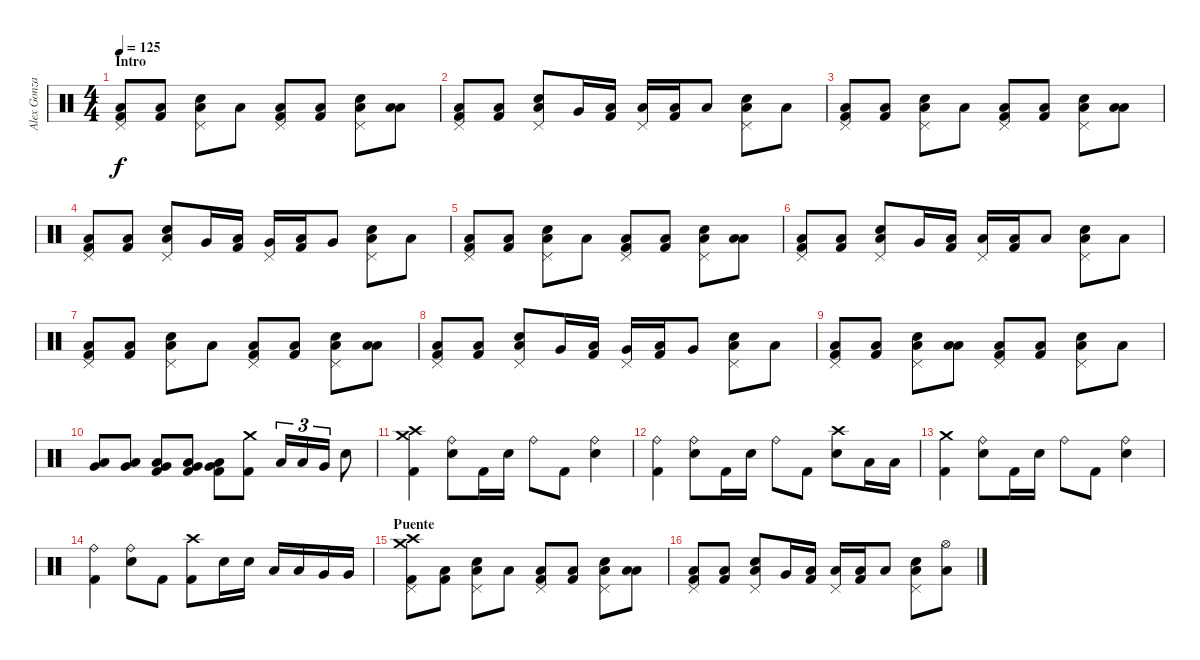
\track ("Alex Gonzales" "Alex Gonza") {instrument percussion}
\staff {score}
\articulation defaults
\ts (4 4)
\section ("" "Intro")
\tempo 125
\clef neutral
\ks c
("Low Floor Tom (hit)" "Kick (hit) 2" "Pedal Hi-Hat (hit)").8{dy f} ("Low Floor Tom (hit)" "Kick (hit) 2").8 ("Electric Snare (hit)" "Low Floor Tom (hit)" "Pedal Hi-Hat (hit)").8 "Low Floor Tom (hit)".8 ("Low Floor Tom (hit)" "Kick (hit) 2" "Pedal Hi-Hat (hit)").8 ("Low Floor Tom (hit)" "Kick (hit) 2").8 ("Electric Snare (hit)" "Low Floor Tom (hit)" "Pedal Hi-Hat (hit)").8 ("Low Tom (hit)" "Low Floor Tom (hit)").8 |
("Low Floor Tom (hit)" "Kick (hit) 2" "Pedal Hi-Hat (hit)").8 ("Low Floor Tom (hit)" "Kick (hit) 2").8 ("Electric Snare (hit)" "Low Floor Tom (hit)" "Pedal Hi-Hat (hit)").8 "Very Low Tom (hit)".16 ("Low Floor Tom (hit)" "Kick (hit) 2").16 ("Low Floor Tom (hit)" "Pedal Hi-Hat (hit)").16 ("Low Floor Tom (hit)" "Kick (hit) 2").16 "Low Floor Tom (hit)".8 ("Electric Snare (hit)" "Low Floor Tom (hit)" "Pedal Hi-Hat (hit)").8 "Low Floor Tom (hit)".8 |
("Low Floor Tom (hit)" "Kick (hit) 2" "Pedal Hi-Hat (hit)").8 ("Low Floor Tom (hit)" "Kick (hit) 2").8 ("Electric Snare (hit)" "Low Floor Tom (hit)" "Pedal Hi-Hat (hit)").8 "Low Floor Tom (hit)".8 ("Low Floor Tom (hit)" "Kick (hit) 2" "Pedal Hi-Hat (hit)").8 ("Low Floor Tom (hit)" "Kick (hit) 2").8 ("Electric Snare (hit)" "Low Floor Tom (hit)" "Pedal Hi-Hat (hit)").8 ("Low Tom (hit)" "Low Floor Tom (hit)").8 |
("Low Floor Tom (hit)" "Kick (hit) 2" "Pedal Hi-Hat (hit)").8 ("Low Floor Tom (hit)" "Kick (hit) 2").8 ("Electric Snare (hit)" "Low Floor Tom (hit)" "Pedal Hi-Hat (hit)").8 "Very Low Tom (hit)".16 ("Low Floor Tom (hit)" "Kick (hit) 2").16 ("Very Low Tom (hit)" "Pedal Hi-Hat (hit)").16 ("Low Floor Tom (hit)" "Kick (hit) 2").16 "Very Low Tom (hit)".8 ("Electric Snare (hit)" "Low Floor Tom (hit)" "Pedal Hi-Hat (hit)").8 "Low Floor Tom (hit)".8 |
("Low Floor Tom (hit)" "Kick (hit) 2" "Pedal Hi-Hat (hit)").8 ("Low Floor Tom (hit)" "Kick (hit) 2").8 ("Electric Snare (hit)" "Low Floor Tom (hit)" "Pedal Hi-Hat (hit)").8 "Low Floor Tom (hit)".8 ("Low Floor Tom (hit)" "Kick (hit) 2" "Pedal Hi-Hat (hit)").8 ("Low Floor Tom (hit)" "Kick (hit) 2").8 ("Electric Snare (hit)" "Low Floor Tom (hit)" "Pedal Hi-Hat (hit)").8 ("Low Tom (hit)" "Low Floor Tom (hit)").8 |
("Low Floor Tom (hit)" "Kick (hit) 2" "Pedal Hi-Hat (hit)").8 ("Low Floor Tom (hit)" "Kick (hit) 2").8 ("Electric Snare (hit)" "Low Floor Tom (hit)" "Pedal Hi-Hat (hit)").8 "Very Low Tom (hit)".16 ("Low Floor Tom (hit)" "Kick (hit) 2").16 ("Low Floor Tom (hit)" "Pedal Hi-Hat (hit)").16 ("Low Floor Tom (hit)" "Kick (hit) 2").16 "Low Floor Tom (hit)".8 ("Electric Snare (hit)" "Low Floor Tom (hit)" "Pedal Hi-Hat (hit)").8 "Low Floor Tom (hit)".8 |
("Low Floor Tom (hit)" "Kick (hit) 2" "Pedal Hi-Hat (hit)").8 ("Low Floor Tom (hit)" "Kick (hit) 2").8 ("Electric Snare (hit)" "Low Floor Tom (hit)" "Pedal Hi-Hat (hit)").8 "Low Floor Tom (hit)".8 ("Low Floor Tom (hit)" "Kick (hit) 2" "Pedal Hi-Hat (hit)").8 ("Low Floor Tom (hit)" "Kick (hit) 2").8 ("Electric Snare (hit)" "Low Floor Tom (hit)" "Pedal Hi-Hat (hit)").8 ("Low Tom (hit)" "Low Floor Tom (hit)").8 |
("Low Floor Tom (hit)" "Kick (hit) 2" "Pedal Hi-Hat (hit)").8 ("Low Floor Tom (hit)" "Kick (hit) 2").8 ("Electric Snare (hit)" "Low Floor Tom (hit)" "Pedal Hi-Hat (hit)").8 "Very Low Tom (hit)".16 ("Low Floor Tom (hit)" "Kick (hit) 2").16 ("Very Low Tom (hit)" "Pedal Hi-Hat (hit)").16 ("Low Floor Tom (hit)" "Kick (hit) 2").16 "Very Low Tom (hit)".8 ("Electric Snare (hit)" "Low Floor Tom (hit)" "Pedal Hi-Hat (hit)").8 "Low Floor Tom (hit)".8 |
("Low Floor Tom (hit)" "Kick (hit) 2" "Pedal Hi-Hat (hit)").8 ("Low Floor Tom (hit)" "Kick (hit) 2").8 ("Electric Snare (hit)" "Low Floor Tom (hit)" "Pedal Hi-Hat (hit)").8 ("Low Tom (hit)" "Low Floor Tom (hit)").8 ("Low Floor Tom (hit)" "Kick (hit) 2" "Pedal Hi-Hat (hit)").8 ("Low Floor Tom (hit)" "Kick (hit) 2").8 ("Electric Snare (hit)" "Low Floor Tom (hit)" "Pedal Hi-Hat (hit)").8 "Low Floor Tom (hit)".8 |
("Very Low Tom (hit)" "Low Floor Tom (hit)").8 ("Very Low Tom (hit)" "Low Floor Tom (hit)").8 ("Very Low Tom (hit)" "Low Floor Tom (hit)" "Kick (hit) 2").8 ("Very Low Tom (hit)" "Low Floor Tom (hit)" "Kick (hit) 2").8 ("Very Low Tom (hit)" "Low Floor Tom (hit)" "Kick (hit) 2").8 ("Crash medium (hit)" "Kick (hit) 2").8 "Low Tom (hit)".16{tu (3 2)} "Low Tom (hit)".16{tu (3 2)} "Very Low Tom (hit)".16{tu (3 2)} "Electric Snare (hit)".8 |
("Crash medium (hit)" "Crash high (hit)" "Kick (hit) 2").4 ("Ride (bell)" "Electric Snare (hit)").8 "Kick (hit) 2".16 "Electric Snare (hit)".16 "Ride (bell)".8 "Kick (hit) 2".8 ("Ride (bell)" "Electric Snare (hit)").4 |
("Ride (bell)" "Kick (hit) 2").4 ("Ride (bell)" "Electric Snare (hit)").8 "Kick (hit) 2".16 "Electric Snare (hit)".16 "Ride (bell)".8 "Kick (hit) 2".8 ("Crash high (hit)" "Electric Snare (hit)").8 "Low Tom (hit)".16 "Low Tom (hit)".16 |
("Crash medium (hit)" "Kick (hit) 2").4 ("Ride (bell)" "Electric Snare (hit)").8 "Kick (hit) 2".16 "Electric Snare (hit)".16 "Ride (bell)".8 "Kick (hit) 2".8 ("Ride (bell)" "Electric Snare (hit)").4 |
("Ride (bell)" "Kick (hit) 2").4 ("Ride (bell)" "Electric Snare (hit)").8 "Kick (hit) 2".8 ("Crash high (hit)" "Kick (hit) 2").8 "Electric Snare (hit)".16 "Electric Snare (hit)".16 "Low Tom (hit)".16 "Low Tom (hit)".16 "Very Low Tom (hit)".16 "Very Low Tom (hit)".16 |
\section ("" "Puente")
("Crash medium (hit)" "Crash high (hit)" "Kick (hit) 2" "Pedal Hi-Hat (hit)").8 ("Low Floor Tom (hit)" "Kick (hit) 2").8 ("Electric Snare (hit)" "Low Floor Tom (hit)" "Pedal Hi-Hat (hit)").8 "Low Floor Tom (hit)".8 ("Low Floor Tom (hit)" "Kick (hit) 2" "Pedal Hi-Hat (hit)").8 ("Low Floor Tom (hit)" "Kick (hit) 2").8 ("Electric Snare (hit)" "Low Floor Tom (hit)" "Pedal Hi-Hat (hit)").8 ("Low Tom (hit)" "Low Floor Tom (hit)").8 |
("Low Floor Tom (hit)" "Kick (hit) 2" "Pedal Hi-Hat (hit)").8 ("Low Floor Tom (hit)" "Kick (hit) 2").8 ("Electric Snare (hit)" "Low Floor Tom (hit)" "Pedal Hi-Hat (hit)").8 "Very Low Tom (hit)".16 ("Low Floor Tom (hit)" "Kick (hit) 2").16 ("Low Floor Tom (hit)" "Pedal Hi-Hat (hit)").16 ("Low Floor Tom (hit)" "Kick (hit) 2").16 "Low Floor Tom (hit)".8 ("Electric Snare (hit)" "Low Floor Tom (hit)" "Pedal Hi-Hat (hit)").8 ("Hi-Hat (open)" "Low Floor Tom (hit)").8
